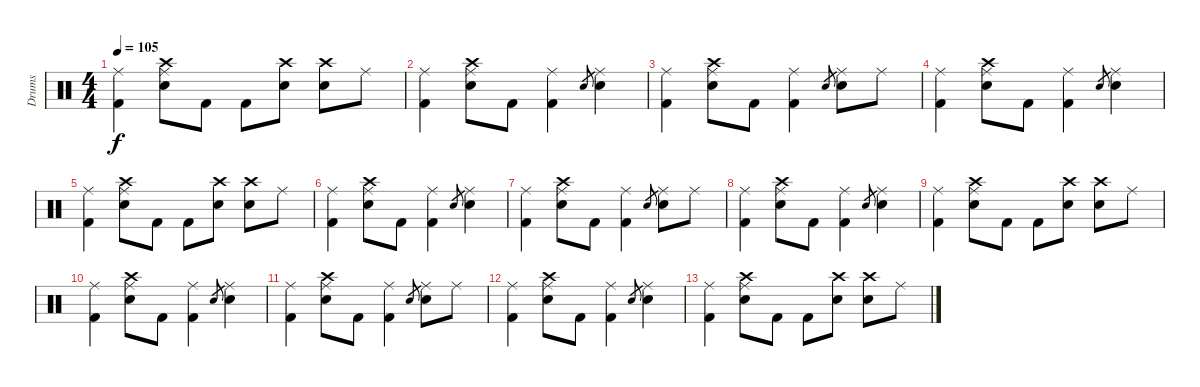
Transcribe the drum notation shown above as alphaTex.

\track ("Drums" "Drums") {instrument percussion}
\staff {score}
\articulation defaults
\ts (4 4)
\tempo 105
\clef neutral
\ks c
("Ride (middle)" "Kick (hit) 2").4{dy f} ("Crash high (hit)" "Ride (middle)" "Electric Snare (hit)").8 "Kick (hit) 2".8 "Kick (hit) 2".8 ("Crash high (hit)" "Electric Snare (hit)").8 ("Crash high (hit)" "Electric Snare (hit)").8 "Ride (middle)".8 |
("Ride (middle)" "Kick (hit) 2").4 ("Crash high (hit)" "Ride (middle)" "Electric Snare (hit)").8 "Kick (hit) 2".8 ("Ride (middle)" "Kick (hit) 2").4 "Electric Snare (hit)".8{gr} ("Ride (middle)" "Electric Snare (hit)").4 |
("Ride (middle)" "Kick (hit) 2").4 ("Crash high (hit)" "Ride (middle)" "Electric Snare (hit)").8 "Kick (hit) 2".8 ("Ride (middle)" "Kick (hit) 2").4 "Electric Snare (hit)".8{gr} ("Ride (middle)" "Electric Snare (hit)").8 "Ride (middle)".8 |
("Ride (middle)" "Kick (hit) 2").4 ("Crash high (hit)" "Ride (middle)" "Electric Snare (hit)").8 "Kick (hit) 2".8 ("Ride (middle)" "Kick (hit) 2").4 "Electric Snare (hit)".8{gr} ("Ride (middle)" "Electric Snare (hit)").4 |
("Ride (middle)" "Kick (hit) 2").4 ("Crash high (hit)" "Ride (middle)" "Electric Snare (hit)").8 "Kick (hit) 2".8 "Kick (hit) 2".8 ("Crash high (hit)" "Electric Snare (hit)").8 ("Crash high (hit)" "Electric Snare (hit)").8 "Ride (middle)".8 |
("Ride (middle)" "Kick (hit) 2").4 ("Crash high (hit)" "Ride (middle)" "Electric Snare (hit)").8 "Kick (hit) 2".8 ("Ride (middle)" "Kick (hit) 2").4 "Electric Snare (hit)".8{gr} ("Ride (middle)" "Electric Snare (hit)").4 |
("Ride (middle)" "Kick (hit) 2").4 ("Crash high (hit)" "Ride (middle)" "Electric Snare (hit)").8 "Kick (hit) 2".8 ("Ride (middle)" "Kick (hit) 2").4 "Electric Snare (hit)".8{gr} ("Ride (middle)" "Electric Snare (hit)").8 "Ride (middle)".8 |
("Ride (middle)" "Kick (hit) 2").4 ("Crash high (hit)" "Ride (middle)" "Electric Snare (hit)").8 "Kick (hit) 2".8 ("Ride (middle)" "Kick (hit) 2").4 "Electric Snare (hit)".8{gr} ("Ride (middle)" "Electric Snare (hit)").4 |
("Ride (middle)" "Kick (hit) 2").4 ("Crash high (hit)" "Ride (middle)" "Electric Snare (hit)").8 "Kick (hit) 2".8 "Kick (hit) 2".8 ("Crash high (hit)" "Electric Snare (hit)").8 ("Crash high (hit)" "Electric Snare (hit)").8 "Ride (middle)".8 |
("Ride (middle)" "Kick (hit) 2").4 ("Crash high (hit)" "Ride (middle)" "Electric Snare (hit)").8 "Kick (hit) 2".8 ("Ride (middle)" "Kick (hit) 2").4 "Electric Snare (hit)".8{gr} ("Ride (middle)" "Electric Snare (hit)").4 |
("Ride (middle)" "Kick (hit) 2").4 ("Crash high (hit)" "Ride (middle)" "Electric Snare (hit)").8 "Kick (hit) 2".8 ("Ride (middle)" "Kick (hit) 2").4 "Electric Snare (hit)".8{gr} ("Ride (middle)" "Electric Snare (hit)").8 "Ride (middle)".8 |
("Ride (middle)" "Kick (hit) 2").4 ("Crash high (hit)" "Ride (middle)" "Electric Snare (hit)").8 "Kick (hit) 2".8 ("Ride (middle)" "Kick (hit) 2").4 "Electric Snare (hit)".8{gr} ("Ride (middle)" "Electric Snare (hit)").4 |
("Ride (middle)" "Kick (hit) 2").4 ("Crash high (hit)" "Ride (middle)" "Electric Snare (hit)").8 "Kick (hit) 2".8 "Kick (hit) 2".8 ("Crash high (hit)" "Electric Snare (hit)").8 ("Crash high (hit)" "Electric Snare (hit)").8 "Ride (middle)".8
